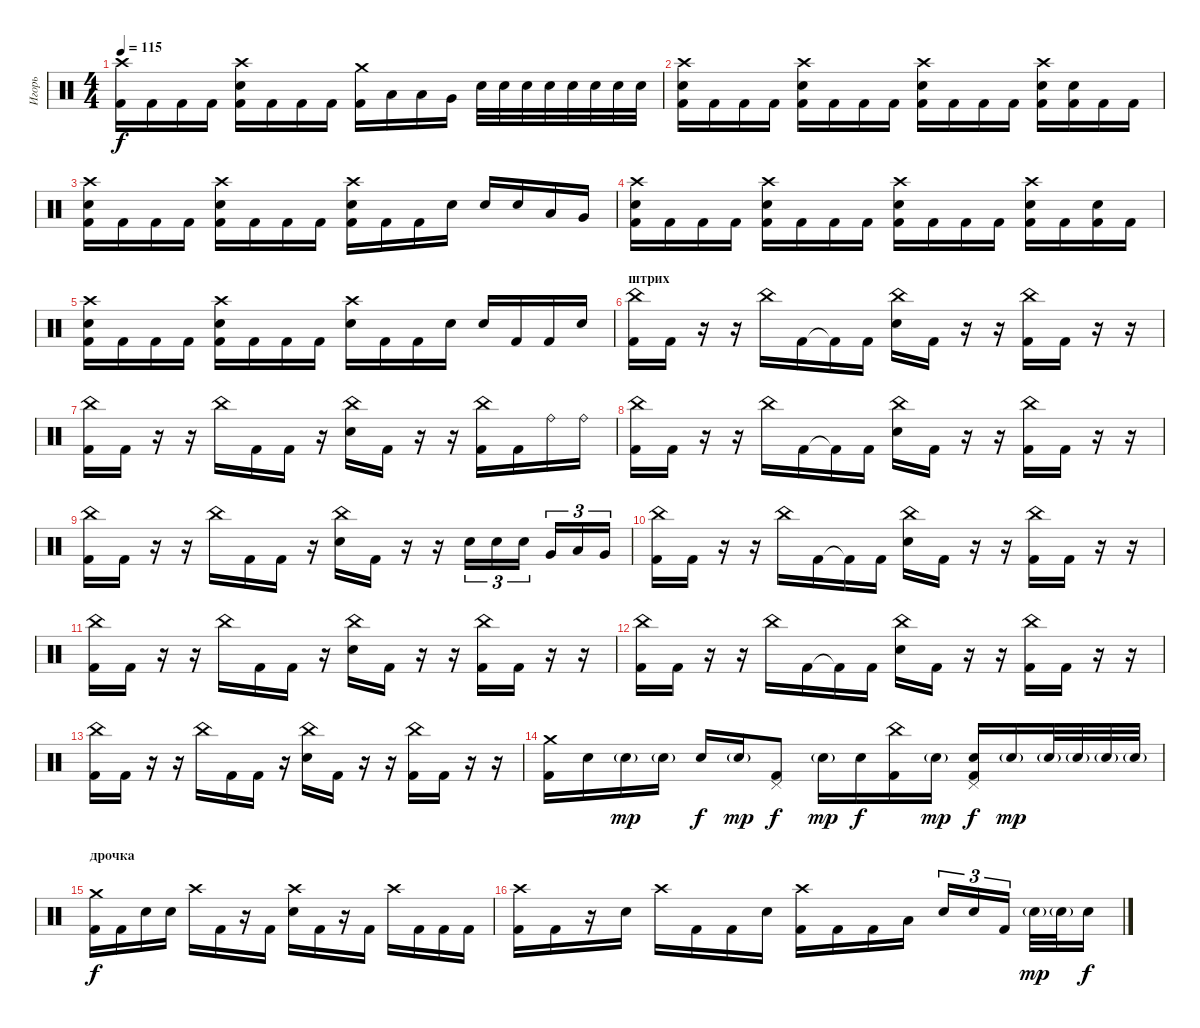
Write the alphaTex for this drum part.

\track ("Игорь" "Игорь") {instrument percussion}
\staff {score}
\articulation defaults
\ts (4 4)
\tempo 115
\clef neutral
\ks c
("Crash high (hit)" "Kick (hit) 2").16{dy f} "Kick (hit) 2".16 "Kick (hit) 2".16 "Kick (hit) 2".16 ("Crash high (hit)" "Electric Snare (hit)" "Kick (hit) 2").16 "Kick (hit) 2".16 "Kick (hit) 2".16 "Kick (hit) 2".16 ("Crash medium (hit)" "Kick (hit) 2").16 "Low Tom (hit)".16 "Low Tom (hit)".16 "Very Low Tom (hit)".16 "Electric Snare (hit)".32 "Electric Snare (hit)".32 "Electric Snare (hit)".32 "Electric Snare (hit)".32 "Electric Snare (hit)".32 "Electric Snare (hit)".32 "Electric Snare (hit)".32 "Electric Snare (hit)".32 |
("Crash high (hit)" "Electric Snare (hit)" "Kick (hit) 2").16 "Kick (hit) 2".16 "Kick (hit) 2".16 "Kick (hit) 2".16 ("Crash high (hit)" "Electric Snare (hit)" "Kick (hit) 2").16 "Kick (hit) 2".16 "Kick (hit) 2".16 "Kick (hit) 2".16 ("Crash high (hit)" "Electric Snare (hit)" "Kick (hit) 2").16 "Kick (hit) 2".16 "Kick (hit) 2".16 "Kick (hit) 2".16 ("Crash high (hit)" "Electric Snare (hit)" "Kick (hit) 2").16 ("Electric Snare (hit)" "Kick (hit) 2").16 "Kick (hit) 2".16 "Kick (hit) 2".16 |
("Crash high (hit)" "Electric Snare (hit)" "Kick (hit) 2").16 "Kick (hit) 2".16 "Kick (hit) 2".16 "Kick (hit) 2".16 ("Crash high (hit)" "Electric Snare (hit)" "Kick (hit) 2").16 "Kick (hit) 2".16 "Kick (hit) 2".16 "Kick (hit) 2".16 ("Crash high (hit)" "Electric Snare (hit)" "Kick (hit) 2").16 "Kick (hit) 2".16 "Kick (hit) 2".16 "Electric Snare (hit)".16 "Electric Snare (hit)".16 "Electric Snare (hit)".16 "Low Tom (hit)".16 "Very Low Tom (hit)".16 |
("Crash high (hit)" "Electric Snare (hit)" "Kick (hit) 2").16 "Kick (hit) 2".16 "Kick (hit) 2".16 "Kick (hit) 2".16 ("Crash high (hit)" "Electric Snare (hit)" "Kick (hit) 2").16 "Kick (hit) 2".16 "Kick (hit) 2".16 "Kick (hit) 2".16 ("Crash high (hit)" "Electric Snare (hit)" "Kick (hit) 2").16 "Kick (hit) 2".16 "Kick (hit) 2".16 "Kick (hit) 2".16 ("Crash high (hit)" "Electric Snare (hit)" "Kick (hit) 2").16 "Kick (hit) 2".16 ("Electric Snare (hit)" "Kick (hit) 2").16 "Kick (hit) 2".16 |
("Crash high (hit)" "Electric Snare (hit)" "Kick (hit) 2").16 "Kick (hit) 2".16 "Kick (hit) 2".16 "Kick (hit) 2".16 ("Crash high (hit)" "Electric Snare (hit)" "Kick (hit) 2").16 "Kick (hit) 2".16 "Kick (hit) 2".16 "Kick (hit) 2".16 ("Crash high (hit)" "Electric Snare (hit)").16 "Kick (hit) 2".16 "Kick (hit) 2".16 "Electric Snare (hit)".16 "Electric Snare (hit)".16 "Kick (hit) 2".16 "Kick (hit) 2".16 "Electric Snare (hit)".16 |
\section ("" "штрих")
("China (hit)" "Kick (hit) 2").16 "Kick (hit) 2".16 r.16 r.16 "China (hit)".16 "Kick (hit) 2".16 "Kick (hit) 2"{t}.16 "Kick (hit) 2".16 ("China (hit)" "Electric Snare (hit)").16 "Kick (hit) 2".16 r.16 r.16 ("China (hit)" "Kick (hit) 2").16 "Kick (hit) 2".16 r.16 r.16 |
("China (hit)" "Kick (hit) 2").16 "Kick (hit) 2".16 r.16 r.16 "China (hit)".16 "Kick (hit) 2".16 "Kick (hit) 2".16 r.16 ("China (hit)" "Electric Snare (hit)").16 "Kick (hit) 2".16 r.16 r.16 ("China (hit)" "Kick (hit) 2").16 "Kick (hit) 2".16 "Ride (bell)".16 "Ride (bell)".16 |
("China (hit)" "Kick (hit) 2").16 "Kick (hit) 2".16 r.16 r.16 "China (hit)".16 "Kick (hit) 2".16 "Kick (hit) 2"{t}.16 "Kick (hit) 2".16 ("China (hit)" "Electric Snare (hit)").16 "Kick (hit) 2".16 r.16 r.16 ("China (hit)" "Kick (hit) 2").16 "Kick (hit) 2".16 r.16 r.16 |
("China (hit)" "Kick (hit) 2").16 "Kick (hit) 2".16 r.16 r.16 "China (hit)".16 "Kick (hit) 2".16 "Kick (hit) 2".16 r.16 ("China (hit)" "Electric Snare (hit)").16 "Kick (hit) 2".16 r.16 r.16 "Electric Snare (hit)".16{tu (3 2)} "Electric Snare (hit)".16{tu (3 2)} "Electric Snare (hit)".16{tu (3 2) beam splitsecondary} "Very Low Tom (hit)".16{tu (3 2)} "Low Tom (hit)".16{tu (3 2)} "Very Low Tom (hit)".16{tu (3 2)} |
("China (hit)" "Kick (hit) 2").16 "Kick (hit) 2".16 r.16 r.16 "China (hit)".16 "Kick (hit) 2".16 "Kick (hit) 2"{t}.16 "Kick (hit) 2".16 ("China (hit)" "Electric Snare (hit)").16 "Kick (hit) 2".16 r.16 r.16 ("China (hit)" "Kick (hit) 2").16 "Kick (hit) 2".16 r.16 r.16 |
("China (hit)" "Kick (hit) 2").16 "Kick (hit) 2".16 r.16 r.16 "China (hit)".16 "Kick (hit) 2".16 "Kick (hit) 2".16 r.16 ("China (hit)" "Electric Snare (hit)").16 "Kick (hit) 2".16 r.16 r.16 ("China (hit)" "Kick (hit) 2").16 "Kick (hit) 2".16 r.16 r.16 |
("China (hit)" "Kick (hit) 2").16 "Kick (hit) 2".16 r.16 r.16 "China (hit)".16 "Kick (hit) 2".16 "Kick (hit) 2"{t}.16 "Kick (hit) 2".16 ("China (hit)" "Electric Snare (hit)").16 "Kick (hit) 2".16 r.16 r.16 ("China (hit)" "Kick (hit) 2").16 "Kick (hit) 2".16 r.16 r.16 |
("China (hit)" "Kick (hit) 2").16 "Kick (hit) 2".16 r.16 r.16 "China (hit)".16 "Kick (hit) 2".16 "Kick (hit) 2".16 r.16 ("China (hit)" "Electric Snare (hit)").16 "Kick (hit) 2".16 r.16 r.16 ("China (hit)" "Kick (hit) 2").16 "Kick (hit) 2".16 r.16 r.16 |
("Crash medium (hit)" "Kick (hit) 2").16 "Electric Snare (hit)".16 "Electric Snare (hit)"{g}.16{dy mp} "Electric Snare (hit)"{g}.16 "Electric Snare (hit)".16{dy f} "Electric Snare (hit)"{g}.16{dy mp} ("Pedal Hi-Hat (hit)" "Kick (hit) 2").8{dy f} "Electric Snare (hit)"{g}.16{dy mp} "Electric Snare (hit)".16{dy f} ("China (hit)" "Kick (hit) 2").16 "Electric Snare (hit)"{g}.16{dy mp} ("Pedal Hi-Hat (hit)" "Electric Snare (hit)" "Kick (hit) 2").16{dy f} "Electric Snare (hit)"{g}.16{dy mp} "Electric Snare (hit)"{g}.32 "Electric Snare (hit)"{g}.32 "Electric Snare (hit)"{g}.32 "Electric Snare (hit)"{g}.32 |
\section ("" "дрочка")
("Crash medium (hit)" "Kick (hit) 2").16{dy f} "Kick (hit) 2".16 "Electric Snare (hit)".16 "Electric Snare (hit)".16 "Crash high (hit)".16 "Kick (hit) 2".16 r.16 "Kick (hit) 2".16 ("Crash high (hit)" "Electric Snare (hit)").16 "Kick (hit) 2".16 r.16 "Kick (hit) 2".16 "Crash high (hit)".16 "Kick (hit) 2".16 "Kick (hit) 2".16 "Kick (hit) 2".16 |
("Crash high (hit)" "Kick (hit) 2").16 "Kick (hit) 2".16 r.16 "Electric Snare (hit)".16 "Crash high (hit)".16 "Kick (hit) 2".16 "Kick (hit) 2".16 "Electric Snare (hit)".16 ("Crash high (hit)" "Kick (hit) 2").16 "Kick (hit) 2".16 "Kick (hit) 2".16 "Low Tom (hit)".16 "Electric Snare (hit)".16{tu (3 2)} "Electric Snare (hit)".16{tu (3 2)} "Kick (hit) 2".16{tu (3 2) beam splitsecondary} "Electric Snare (hit)"{g}.32{dy mp} "Electric Snare (hit)"{g}.32 "Electric Snare (hit)".16{dy f}
